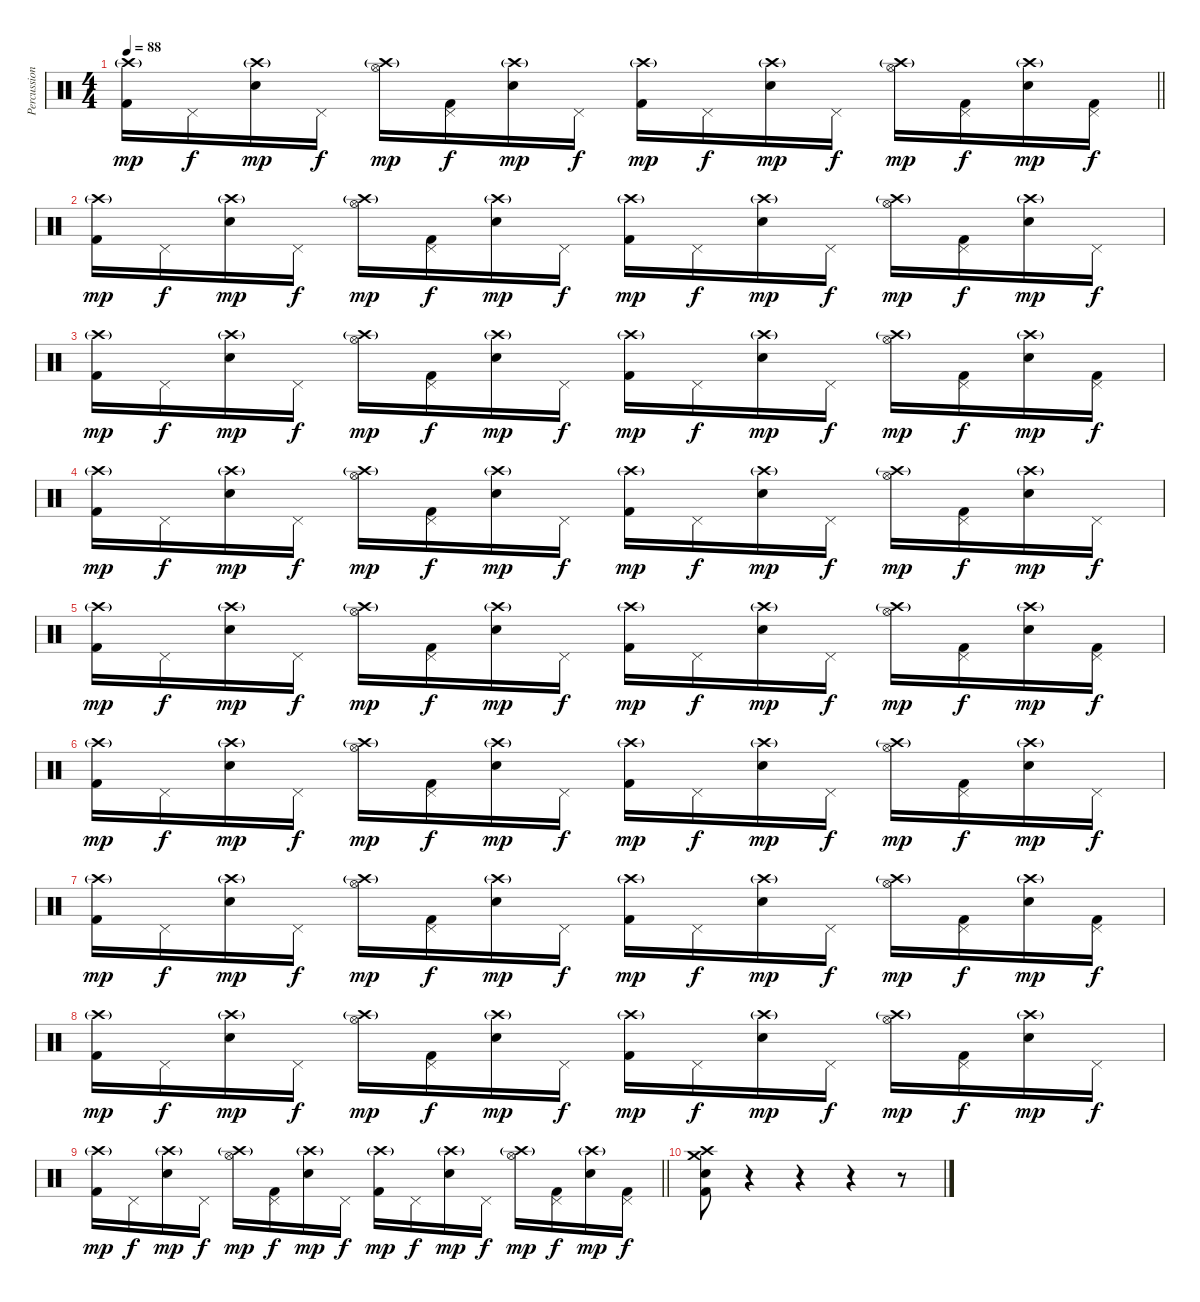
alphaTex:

\track ("Percussion" "Percussion") {instrument percussion}
\staff {score}
\articulation defaults
\ts (4 4)
\tempo 88
\clef neutral
\barLineRight lightlight
\ks c
("Crash high (hit)"{g} "Kick (hit) 2").16{dy mp} "Pedal Hi-Hat (hit)".16{dy f} ("Crash high (hit)"{g} "Snare (hit) 2").16{dy mp} "Pedal Hi-Hat (hit)".16{dy f} ("Crash high (hit)"{g} "Hi-Hat (open)").16{dy mp} ("Pedal Hi-Hat (hit)" "Kick (hit) 2").16{dy f} ("Crash high (hit)"{g} "Snare (hit) 2").16{dy mp} "Pedal Hi-Hat (hit)".16{dy f} ("Crash high (hit)"{g} "Kick (hit) 2").16{dy mp} "Pedal Hi-Hat (hit)".16{dy f} ("Crash high (hit)"{g} "Snare (hit) 2").16{dy mp} "Pedal Hi-Hat (hit)".16{dy f} ("Crash high (hit)"{g} "Hi-Hat (open)").16{dy mp} ("Pedal Hi-Hat (hit)" "Kick (hit) 2").16{dy f} ("Crash high (hit)"{g} "Snare (hit) 2").16{dy mp} ("Pedal Hi-Hat (hit)" "Kick (hit) 2").16{dy f} |
("Crash high (hit)"{g} "Kick (hit) 2").16{dy mp} "Pedal Hi-Hat (hit)".16{dy f} ("Crash high (hit)"{g} "Snare (hit) 2").16{dy mp} "Pedal Hi-Hat (hit)".16{dy f} ("Crash high (hit)"{g} "Hi-Hat (open)").16{dy mp} ("Pedal Hi-Hat (hit)" "Kick (hit) 2").16{dy f} ("Crash high (hit)"{g} "Snare (hit) 2").16{dy mp} "Pedal Hi-Hat (hit)".16{dy f} ("Crash high (hit)"{g} "Kick (hit) 2").16{dy mp} "Pedal Hi-Hat (hit)".16{dy f} ("Crash high (hit)"{g} "Snare (hit) 2").16{dy mp} "Pedal Hi-Hat (hit)".16{dy f} ("Crash high (hit)"{g} "Hi-Hat (open)").16{dy mp} ("Pedal Hi-Hat (hit)" "Kick (hit) 2").16{dy f} ("Crash high (hit)"{g} "Snare (hit) 2").16{dy mp} "Pedal Hi-Hat (hit)".16{dy f} |
("Crash high (hit)"{g} "Kick (hit) 2").16{dy mp} "Pedal Hi-Hat (hit)".16{dy f} ("Crash high (hit)"{g} "Snare (hit) 2").16{dy mp} "Pedal Hi-Hat (hit)".16{dy f} ("Crash high (hit)"{g} "Hi-Hat (open)").16{dy mp} ("Pedal Hi-Hat (hit)" "Kick (hit) 2").16{dy f} ("Crash high (hit)"{g} "Snare (hit) 2").16{dy mp} "Pedal Hi-Hat (hit)".16{dy f} ("Crash high (hit)"{g} "Kick (hit) 2").16{dy mp} "Pedal Hi-Hat (hit)".16{dy f} ("Crash high (hit)"{g} "Snare (hit) 2").16{dy mp} "Pedal Hi-Hat (hit)".16{dy f} ("Crash high (hit)"{g} "Hi-Hat (open)").16{dy mp} ("Pedal Hi-Hat (hit)" "Kick (hit) 2").16{dy f} ("Crash high (hit)"{g} "Snare (hit) 2").16{dy mp} ("Pedal Hi-Hat (hit)" "Kick (hit) 2").16{dy f} |
("Crash high (hit)"{g} "Kick (hit) 2").16{dy mp} "Pedal Hi-Hat (hit)".16{dy f} ("Crash high (hit)"{g} "Snare (hit) 2").16{dy mp} "Pedal Hi-Hat (hit)".16{dy f} ("Crash high (hit)"{g} "Hi-Hat (open)").16{dy mp} ("Pedal Hi-Hat (hit)" "Kick (hit) 2").16{dy f} ("Crash high (hit)"{g} "Snare (hit) 2").16{dy mp} "Pedal Hi-Hat (hit)".16{dy f} ("Crash high (hit)"{g} "Kick (hit) 2").16{dy mp} "Pedal Hi-Hat (hit)".16{dy f} ("Crash high (hit)"{g} "Snare (hit) 2").16{dy mp} "Pedal Hi-Hat (hit)".16{dy f} ("Crash high (hit)"{g} "Hi-Hat (open)").16{dy mp} ("Pedal Hi-Hat (hit)" "Kick (hit) 2").16{dy f} ("Crash high (hit)"{g} "Snare (hit) 2").16{dy mp} "Pedal Hi-Hat (hit)".16{dy f} |
("Crash high (hit)"{g} "Kick (hit) 2").16{dy mp} "Pedal Hi-Hat (hit)".16{dy f} ("Crash high (hit)"{g} "Snare (hit) 2").16{dy mp} "Pedal Hi-Hat (hit)".16{dy f} ("Crash high (hit)"{g} "Hi-Hat (open)").16{dy mp} ("Pedal Hi-Hat (hit)" "Kick (hit) 2").16{dy f} ("Crash high (hit)"{g} "Snare (hit) 2").16{dy mp} "Pedal Hi-Hat (hit)".16{dy f} ("Crash high (hit)"{g} "Kick (hit) 2").16{dy mp} "Pedal Hi-Hat (hit)".16{dy f} ("Crash high (hit)"{g} "Snare (hit) 2").16{dy mp} "Pedal Hi-Hat (hit)".16{dy f} ("Crash high (hit)"{g} "Hi-Hat (open)").16{dy mp} ("Pedal Hi-Hat (hit)" "Kick (hit) 2").16{dy f} ("Crash high (hit)"{g} "Snare (hit) 2").16{dy mp} ("Pedal Hi-Hat (hit)" "Kick (hit) 2").16{dy f} |
("Crash high (hit)"{g} "Kick (hit) 2").16{dy mp} "Pedal Hi-Hat (hit)".16{dy f} ("Crash high (hit)"{g} "Snare (hit) 2").16{dy mp} "Pedal Hi-Hat (hit)".16{dy f} ("Crash high (hit)"{g} "Hi-Hat (open)").16{dy mp} ("Pedal Hi-Hat (hit)" "Kick (hit) 2").16{dy f} ("Crash high (hit)"{g} "Snare (hit) 2").16{dy mp} "Pedal Hi-Hat (hit)".16{dy f} ("Crash high (hit)"{g} "Kick (hit) 2").16{dy mp} "Pedal Hi-Hat (hit)".16{dy f} ("Crash high (hit)"{g} "Snare (hit) 2").16{dy mp} "Pedal Hi-Hat (hit)".16{dy f} ("Crash high (hit)"{g} "Hi-Hat (open)").16{dy mp} ("Pedal Hi-Hat (hit)" "Kick (hit) 2").16{dy f} ("Crash high (hit)"{g} "Snare (hit) 2").16{dy mp} "Pedal Hi-Hat (hit)".16{dy f} |
("Crash high (hit)"{g} "Kick (hit) 2").16{dy mp} "Pedal Hi-Hat (hit)".16{dy f} ("Crash high (hit)"{g} "Snare (hit) 2").16{dy mp} "Pedal Hi-Hat (hit)".16{dy f} ("Crash high (hit)"{g} "Hi-Hat (open)").16{dy mp} ("Pedal Hi-Hat (hit)" "Kick (hit) 2").16{dy f} ("Crash high (hit)"{g} "Snare (hit) 2").16{dy mp} "Pedal Hi-Hat (hit)".16{dy f} ("Crash high (hit)"{g} "Kick (hit) 2").16{dy mp} "Pedal Hi-Hat (hit)".16{dy f} ("Crash high (hit)"{g} "Snare (hit) 2").16{dy mp} "Pedal Hi-Hat (hit)".16{dy f} ("Crash high (hit)"{g} "Hi-Hat (open)").16{dy mp} ("Pedal Hi-Hat (hit)" "Kick (hit) 2").16{dy f} ("Crash high (hit)"{g} "Snare (hit) 2").16{dy mp} ("Pedal Hi-Hat (hit)" "Kick (hit) 2").16{dy f} |
("Crash high (hit)"{g} "Kick (hit) 2").16{dy mp} "Pedal Hi-Hat (hit)".16{dy f} ("Crash high (hit)"{g} "Snare (hit) 2").16{dy mp} "Pedal Hi-Hat (hit)".16{dy f} ("Crash high (hit)"{g} "Hi-Hat (open)").16{dy mp} ("Pedal Hi-Hat (hit)" "Kick (hit) 2").16{dy f} ("Crash high (hit)"{g} "Snare (hit) 2").16{dy mp} "Pedal Hi-Hat (hit)".16{dy f} ("Crash high (hit)"{g} "Kick (hit) 2").16{dy mp} "Pedal Hi-Hat (hit)".16{dy f} ("Crash high (hit)"{g} "Snare (hit) 2").16{dy mp} "Pedal Hi-Hat (hit)".16{dy f} ("Crash high (hit)"{g} "Hi-Hat (open)").16{dy mp} ("Pedal Hi-Hat (hit)" "Kick (hit) 2").16{dy f} ("Crash high (hit)"{g} "Snare (hit) 2").16{dy mp} "Pedal Hi-Hat (hit)".16{dy f} |
\barLineRight lightlight
("Crash high (hit)"{g} "Kick (hit) 2").16{dy mp} "Pedal Hi-Hat (hit)".16{dy f} ("Crash high (hit)"{g} "Snare (hit) 2").16{dy mp} "Pedal Hi-Hat (hit)".16{dy f} ("Crash high (hit)"{g} "Hi-Hat (open)").16{dy mp} ("Pedal Hi-Hat (hit)" "Kick (hit) 2").16{dy f} ("Crash high (hit)"{g} "Snare (hit) 2").16{dy mp} "Pedal Hi-Hat (hit)".16{dy f} ("Crash high (hit)"{g} "Kick (hit) 2").16{dy mp} "Pedal Hi-Hat (hit)".16{dy f} ("Crash high (hit)"{g} "Snare (hit) 2").16{dy mp} "Pedal Hi-Hat (hit)".16{dy f} ("Crash high (hit)"{g} "Hi-Hat (open)").16{dy mp} ("Pedal Hi-Hat (hit)" "Kick (hit) 2").16{dy f} ("Crash high (hit)"{g} "Snare (hit) 2").16{dy mp} ("Pedal Hi-Hat (hit)" "Kick (hit) 2").16{dy f} |
("Crash high (hit)" "Crash medium (hit)" "Snare (hit) 2" "Kick (hit) 2").8 r.4 r.4 r.4 r.8
